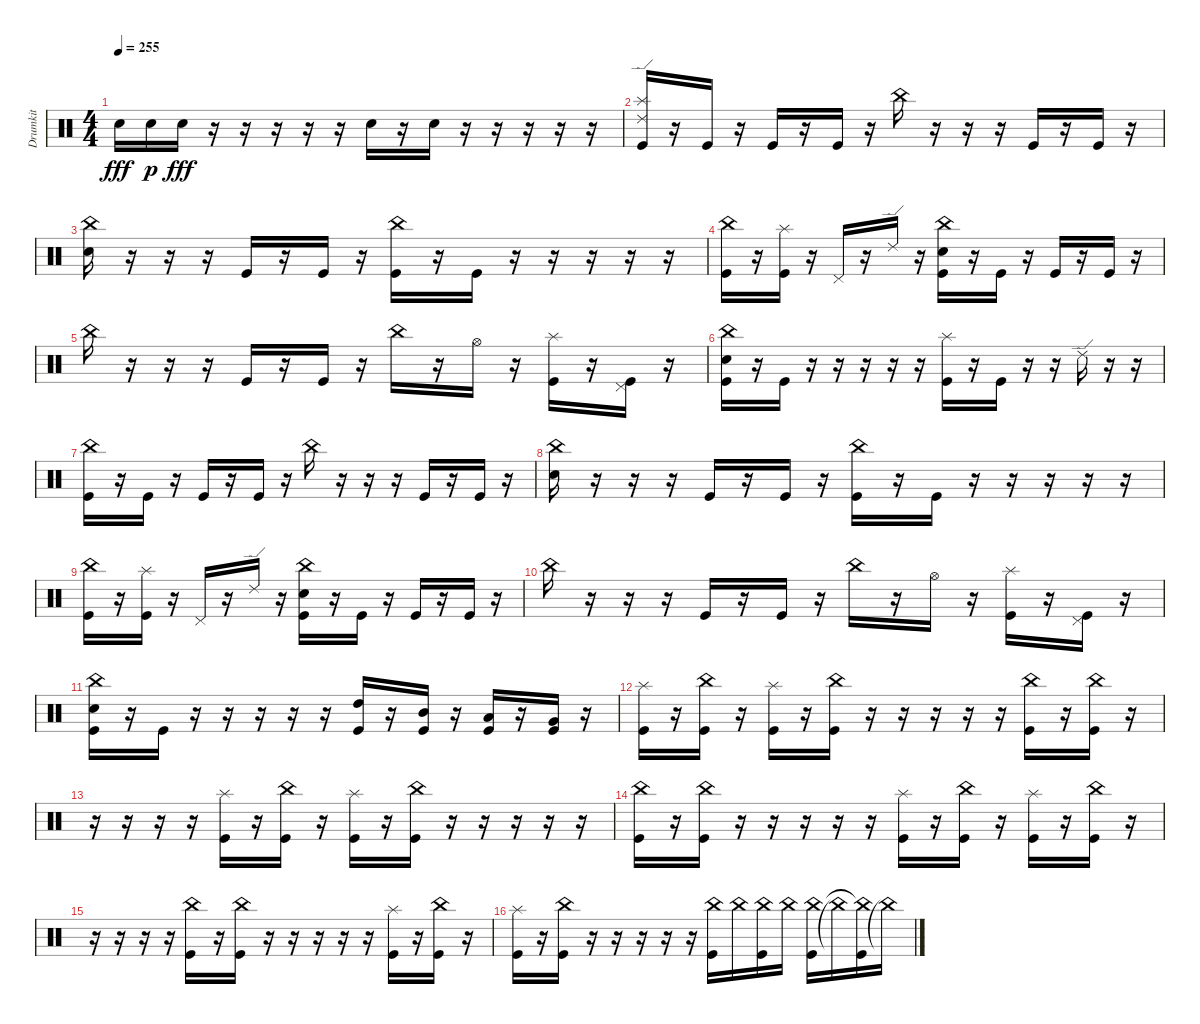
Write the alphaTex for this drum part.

\track ("Drumkit" "Drumkit") {instrument percussion}
\staff {score}
\articulation defaults
\ts (4 4)
\tempo 255
\clef neutral
\ks c "Snare (hit) 2".16{dy fff} "Snare (hit) 2".16{dy p} "Snare (hit) 2".16{dy fff}
r.16 r.16 r.16 r.16 r.16 "Snare (hit) 2".16 r.16 "Snare (hit) 2".16 r.16 r.16 r.16 r.16 r.16 |
("Kick (hit)" "Splash (hit)" "Ride (edge) 2").16 r.16 "Kick (hit)".16 r.16 "Kick (hit)".16 r.16 "Kick (hit)".16 r.16 "China (hit)".16 r.16 r.16 r.16 "Kick (hit)".16 r.16 "Kick (hit)".16 r.16 |
("China (hit)" "Snare (hit) 2").16 r.16 r.16 r.16 "Kick (hit)".16 r.16 "Kick (hit)".16 r.16 ("Kick (hit)" "China (hit)").16 r.16 "Kick (hit)".16 r.16 r.16 r.16 r.16 r.16 |
("Kick (hit)" "China (hit)").16 r.16 ("Kick (hit)" "Splash (hit)").16 r.16 "Pedal Hi-Hat (hit)".16 r.16 "Ride (edge) 2".16 r.16 ("Kick (hit)" "China (hit)" "Snare (hit) 2").16 r.16 "Kick (hit)".16 r.16 "Kick (hit)".16 r.16 "Kick (hit)".16 r.16 |
"China (hit)".16 r.16 r.16 r.16 "Kick (hit)".16 r.16 "Kick (hit)".16 r.16 "China (hit)".16 r.16 "Hi-Hat (open)".16 r.16 ("Kick (hit)" "Splash (hit)").16 r.16 ("Kick (hit)" "Pedal Hi-Hat (hit)").16 r.16 |
("Kick (hit)" "China (hit)" "Snare (hit) 2").16 r.16 "Kick (hit)".16 r.16 r.16 r.16 r.16 r.16 ("Kick (hit)" "Splash (hit)").16 r.16 "Kick (hit)".16 r.16 r.16 "Ride (edge) 2".16 r.16 r.16 |
("Kick (hit)" "China (hit)").16 r.16 "Kick (hit)".16 r.16 "Kick (hit)".16 r.16 "Kick (hit)".16 r.16 "China (hit)".16 r.16 r.16 r.16 "Kick (hit)".16 r.16 "Kick (hit)".16 r.16 |
("China (hit)" "Snare (hit) 2").16 r.16 r.16 r.16 "Kick (hit)".16 r.16 "Kick (hit)".16 r.16 ("Kick (hit)" "China (hit)").16 r.16 "Kick (hit)".16 r.16 r.16 r.16 r.16 r.16 |
("Kick (hit)" "China (hit)").16 r.16 ("Kick (hit)" "Splash (hit)").16 r.16 "Pedal Hi-Hat (hit)".16 r.16 "Ride (edge) 2".16 r.16 ("Kick (hit)" "China (hit)" "Snare (hit) 2").16 r.16 "Kick (hit)".16 r.16 "Kick (hit)".16 r.16 "Kick (hit)".16 r.16 |
"China (hit)".16 r.16 r.16 r.16 "Kick (hit)".16 r.16 "Kick (hit)".16 r.16 "China (hit)".16 r.16 "Hi-Hat (open)".16 r.16 ("Kick (hit)" "Splash (hit)").16 r.16 ("Kick (hit)" "Pedal Hi-Hat (hit)").16 r.16 |
("Kick (hit)" "China (hit)" "Snare (hit) 2").16 r.16 "Kick (hit)".16 r.16 r.16 r.16 r.16 r.16 ("Kick (hit)" "High Tom (hit)").16 r.16 ("Kick (hit)" "Mid Tom (hit)").16 r.16 ("Low Tom (hit)" "Kick (hit)").16 r.16 ("Very Low Tom (hit)" "Kick (hit)").16 r.16 |
("Kick (hit)" "Splash (hit)").16 r.16 ("Kick (hit)" "China (hit)").16 r.16 ("Kick (hit)" "Splash (hit)").16 r.16 ("Kick (hit)" "China (hit)").16 r.16 r.16 r.16 r.16 r.16 ("Kick (hit)" "China (hit)").16 r.16 ("Kick (hit)" "China (hit)").16 r.16 |
r.16 r.16 r.16 r.16 ("Kick (hit)" "Splash (hit)").16 r.16 ("Kick (hit)" "China (hit)").16 r.16 ("Kick (hit)" "Splash (hit)").16 r.16 ("Kick (hit)" "China (hit)").16 r.16 r.16 r.16 r.16 r.16 |
("Kick (hit)" "China (hit)").16 r.16 ("Kick (hit)" "China (hit)").16 r.16 r.16 r.16 r.16 r.16 ("Kick (hit)" "Splash (hit)").16 r.16 ("Kick (hit)" "China (hit)").16 r.16 ("Kick (hit)" "Splash (hit)").16 r.16 ("Kick (hit)" "China (hit)").16 r.16 |
r.16 r.16 r.16 r.16 ("Kick (hit)" "China (hit)").16 r.16 ("Kick (hit)" "China (hit)").16 r.16 r.16 r.16 r.16 r.16 ("Kick (hit)" "Splash (hit)").16 r.16 ("Kick (hit)" "China (hit)").16 r.16 |
("Kick (hit)" "Splash (hit)").16 r.16 ("Kick (hit)" "China (hit)").16 r.16 r.16 r.16 r.16 r.16 ("Kick (hit)" "China (hit)").16 "China (hit)".16 ("Kick (hit)" "China (hit)").16 "China (hit)".16 ("Kick (hit)" "China (hit)").16 "China (hit)"{t}.16 ("Kick (hit)" "China (hit)"{t}).16 "China (hit)"{t}.16
